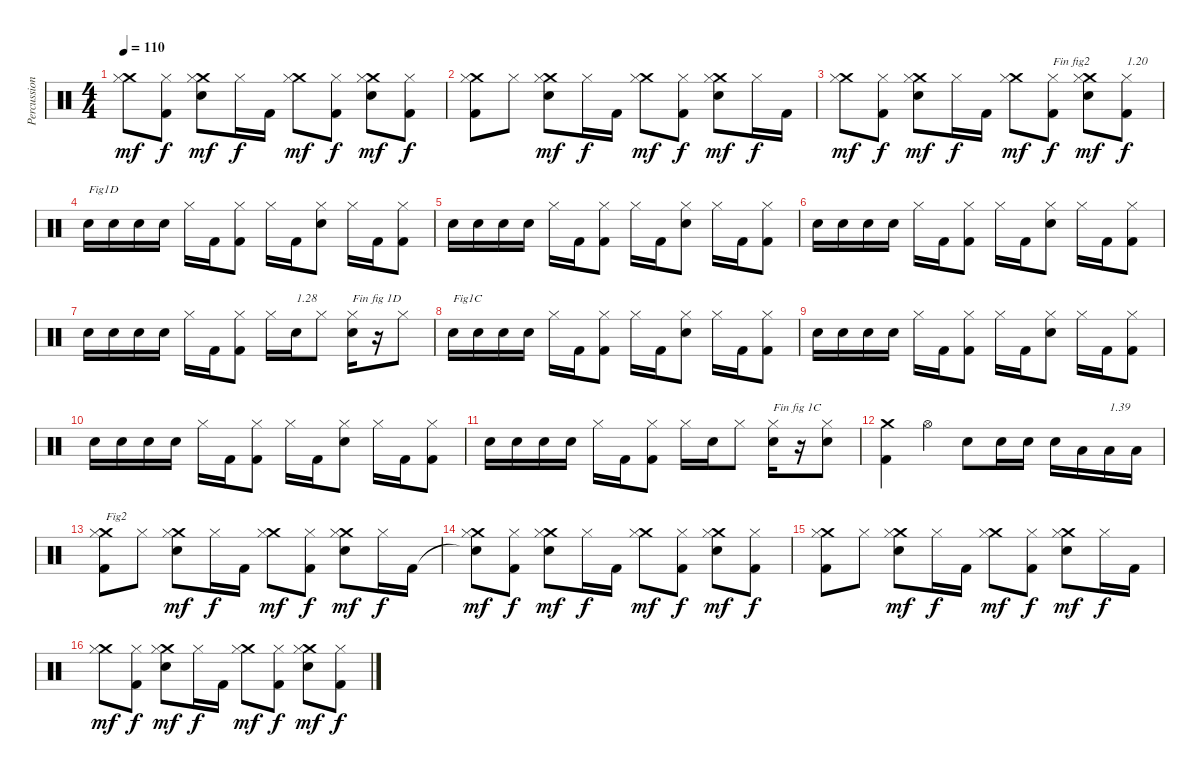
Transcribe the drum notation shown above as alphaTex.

\track ("Percussions" "Percussion") {instrument percussion}
\staff {score}
\articulation defaults
\ts (4 4)
\tempo 110
\clef neutral
\ks c
("Crash medium (hit)" "Hi-Hat (closed)").8{dy mf} ("Kick (hit) 2" "Hi-Hat (closed)").8{dy f} ("Electric Snare (hit)" "Crash medium (hit)" "Hi-Hat (closed)").8{dy mf} "Hi-Hat (closed)".16{dy f} "Kick (hit) 2".16 ("Crash medium (hit)" "Hi-Hat (closed)").8{dy mf} ("Kick (hit) 2" "Hi-Hat (closed)").8{dy f} ("Electric Snare (hit)" "Crash medium (hit)" "Hi-Hat (closed)").8{dy mf} ("Kick (hit) 2" "Hi-Hat (closed)").8{dy f} |
("Kick (hit) 2" "Crash medium (hit)" "Hi-Hat (closed)").8 "Hi-Hat (closed)".8 ("Electric Snare (hit)" "Crash medium (hit)" "Hi-Hat (closed)").8{dy mf} "Hi-Hat (closed)".16{dy f} "Kick (hit) 2".16 ("Crash medium (hit)" "Hi-Hat (closed)").8{dy mf} ("Kick (hit) 2" "Hi-Hat (closed)").8{dy f} ("Electric Snare (hit)" "Crash medium (hit)" "Hi-Hat (closed)").8{dy mf} "Hi-Hat (closed)".16{dy f} "Kick (hit) 2".16 |
("Crash medium (hit)" "Hi-Hat (closed)").8{dy mf} ("Kick (hit) 2" "Hi-Hat (closed)").8{dy f} ("Electric Snare (hit)" "Crash medium (hit)" "Hi-Hat (closed)").8{dy mf} "Hi-Hat (closed)".16{dy f} "Kick (hit) 2".16 ("Crash medium (hit)" "Hi-Hat (closed)").8{dy mf} ("Kick (hit) 2" "Hi-Hat (closed)").8{txt "Fin fig2" dy f} ("Electric Snare (hit)" "Crash medium (hit)" "Hi-Hat (closed)").8{dy mf} ("Kick (hit) 2" "Hi-Hat (closed)").8{txt "1.20" dy f} |
"Electric Snare (hit)".16{txt "Fig1D"} "Electric Snare (hit)".16 "Electric Snare (hit)".16 "Electric Snare (hit)".16 "Hi-Hat (closed)".16 "Kick (hit) 2".16 ("Kick (hit) 2" "Hi-Hat (closed)").8 "Hi-Hat (closed)".16 "Kick (hit) 2".16 ("Electric Snare (hit)" "Hi-Hat (closed)").8 "Hi-Hat (closed)".16 "Kick (hit) 2".16 ("Kick (hit) 2" "Hi-Hat (closed)").8 |
"Electric Snare (hit)".16 "Electric Snare (hit)".16 "Electric Snare (hit)".16 "Electric Snare (hit)".16 "Hi-Hat (closed)".16 "Kick (hit) 2".16 ("Kick (hit) 2" "Hi-Hat (closed)").8 "Hi-Hat (closed)".16 "Kick (hit) 2".16 ("Electric Snare (hit)" "Hi-Hat (closed)").8 "Hi-Hat (closed)".16 "Kick (hit) 2".16 ("Kick (hit) 2" "Hi-Hat (closed)").8 |
"Electric Snare (hit)".16 "Electric Snare (hit)".16 "Electric Snare (hit)".16 "Electric Snare (hit)".16 "Hi-Hat (closed)".16 "Kick (hit) 2".16 ("Kick (hit) 2" "Hi-Hat (closed)").8 "Hi-Hat (closed)".16 "Kick (hit) 2".16 ("Electric Snare (hit)" "Hi-Hat (closed)").8 "Hi-Hat (closed)".16 "Kick (hit) 2".16 ("Kick (hit) 2" "Hi-Hat (closed)").8 |
"Electric Snare (hit)".16 "Electric Snare (hit)".16 "Electric Snare (hit)".16 "Electric Snare (hit)".16 "Hi-Hat (closed)".16 "Kick (hit) 2".16 ("Kick (hit) 2" "Hi-Hat (closed)").8 "Hi-Hat (closed)".16 "Electric Snare (hit)".16{txt "1.28"} "Hi-Hat (closed)".8 ("Electric Snare (hit)" "Hi-Hat (closed)").16{txt "Fin fig 1D"} r.16 "Hi-Hat (closed)".8 |
"Electric Snare (hit)".16{txt "Fig1C"} "Electric Snare (hit)".16 "Electric Snare (hit)".16 "Electric Snare (hit)".16 "Hi-Hat (closed)".16 "Kick (hit) 2".16 ("Kick (hit) 2" "Hi-Hat (closed)").8 "Hi-Hat (closed)".16 "Kick (hit) 2".16 ("Electric Snare (hit)" "Hi-Hat (closed)").8 "Hi-Hat (closed)".16 "Kick (hit) 2".16 ("Kick (hit) 2" "Hi-Hat (closed)").8 |
"Electric Snare (hit)".16 "Electric Snare (hit)".16 "Electric Snare (hit)".16 "Electric Snare (hit)".16 "Hi-Hat (closed)".16 "Kick (hit) 2".16 ("Kick (hit) 2" "Hi-Hat (closed)").8 "Hi-Hat (closed)".16 "Kick (hit) 2".16 ("Electric Snare (hit)" "Hi-Hat (closed)").8 "Hi-Hat (closed)".16 "Kick (hit) 2".16 ("Kick (hit) 2" "Hi-Hat (closed)").8 |
"Electric Snare (hit)".16 "Electric Snare (hit)".16 "Electric Snare (hit)".16 "Electric Snare (hit)".16 "Hi-Hat (closed)".16 "Kick (hit) 2".16 ("Kick (hit) 2" "Hi-Hat (closed)").8 "Hi-Hat (closed)".16 "Kick (hit) 2".16 ("Electric Snare (hit)" "Hi-Hat (closed)").8 "Hi-Hat (closed)".16 "Kick (hit) 2".16 ("Kick (hit) 2" "Hi-Hat (closed)").8 |
"Electric Snare (hit)".16 "Electric Snare (hit)".16 "Electric Snare (hit)".16 "Electric Snare (hit)".16 "Hi-Hat (closed)".16 "Kick (hit) 2".16 ("Kick (hit) 2" "Hi-Hat (closed)").8 "Hi-Hat (closed)".16 "Electric Snare (hit)".16 "Hi-Hat (closed)".8 ("Electric Snare (hit)" "Hi-Hat (closed)").16{txt "Fin fig 1C"} r.16 ("Electric Snare (hit)" "Hi-Hat (closed)").8 |
("Kick (hit) 2" "Crash medium (hit)").4 "Hi-Hat (open)".4 "Electric Snare (hit)".8 "Electric Snare (hit)".16 "Electric Snare (hit)".16 "Electric Snare (hit)".16 "Low Floor Tom (hit)".16 "Low Floor Tom (hit)".16{txt "1.39"} "Low Floor Tom (hit)".16 |
("Kick (hit) 2" "Crash medium (hit)" "Hi-Hat (closed)").8{txt "Fig2"} "Hi-Hat (closed)".8 ("Electric Snare (hit)" "Crash medium (hit)" "Hi-Hat (closed)").8{dy mf} "Hi-Hat (closed)".16{dy f} "Kick (hit) 2".16 ("Crash medium (hit)" "Hi-Hat (closed)").8{dy mf} ("Kick (hit) 2" "Hi-Hat (closed)").8{dy f} ("Electric Snare (hit)" "Crash medium (hit)" "Hi-Hat (closed)").8{dy mf} "Hi-Hat (closed)".16{dy f} "Kick (hit) 2".16 |
("Snare (hit)"{t} "Crash medium (hit)" "Hi-Hat (closed)").8{dy mf} ("Kick (hit) 2" "Hi-Hat (closed)").8{dy f} ("Electric Snare (hit)" "Crash medium (hit)" "Hi-Hat (closed)").8{dy mf} "Hi-Hat (closed)".16{dy f} "Kick (hit) 2".16 ("Crash medium (hit)" "Hi-Hat (closed)").8{dy mf} ("Kick (hit) 2" "Hi-Hat (closed)").8{dy f} ("Electric Snare (hit)" "Crash medium (hit)" "Hi-Hat (closed)").8{dy mf} ("Kick (hit) 2" "Hi-Hat (closed)").8{dy f} |
("Kick (hit) 2" "Crash medium (hit)" "Hi-Hat (closed)").8 "Hi-Hat (closed)".8 ("Electric Snare (hit)" "Crash medium (hit)" "Hi-Hat (closed)").8{dy mf} "Hi-Hat (closed)".16{dy f} "Kick (hit) 2".16 ("Crash medium (hit)" "Hi-Hat (closed)").8{dy mf} ("Kick (hit) 2" "Hi-Hat (closed)").8{dy f} ("Electric Snare (hit)" "Crash medium (hit)" "Hi-Hat (closed)").8{dy mf} "Hi-Hat (closed)".16{dy f} "Kick (hit) 2".16 |
("Crash medium (hit)" "Hi-Hat (closed)").8{dy mf} ("Kick (hit) 2" "Hi-Hat (closed)").8{dy f} ("Electric Snare (hit)" "Crash medium (hit)" "Hi-Hat (closed)").8{dy mf} "Hi-Hat (closed)".16{dy f} "Kick (hit) 2".16 ("Crash medium (hit)" "Hi-Hat (closed)").8{dy mf} ("Kick (hit) 2" "Hi-Hat (closed)").8{dy f} ("Electric Snare (hit)" "Crash medium (hit)" "Hi-Hat (closed)").8{dy mf} ("Kick (hit) 2" "Hi-Hat (closed)").8{dy f}
